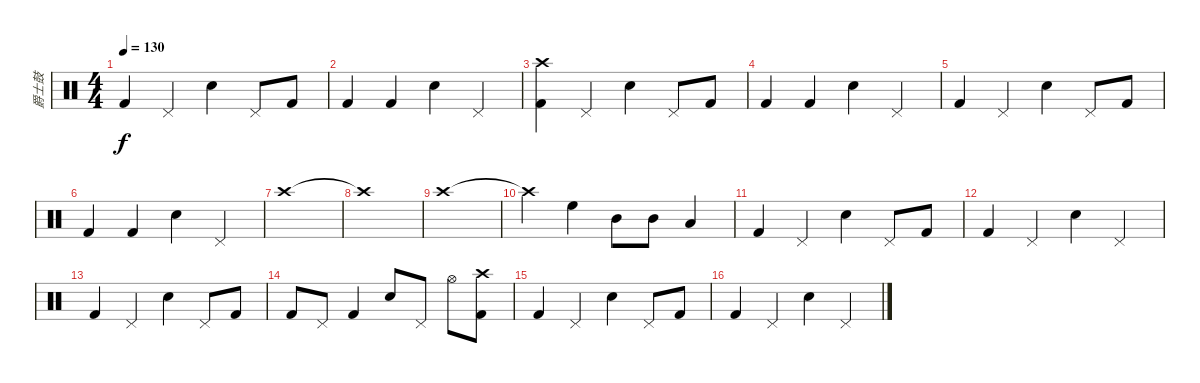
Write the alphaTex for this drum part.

\track ("爵士鼓" "爵士鼓") {instrument percussion}
\staff {score}
\articulation defaults
\ts (4 4)
\tempo 130
\clef neutral
\ks c "Kick (hit) 2".4{dy f} "Pedal Hi-Hat (hit)".4 "Snare (hit) 2".4 "Pedal Hi-Hat (hit)".8 "Kick (hit) 2".8
|
"Kick (hit) 2".4 "Kick (hit) 2".4 "Snare (hit) 2".4 "Pedal Hi-Hat (hit)".4 |
("Crash high (hit)" "Kick (hit) 2").4 "Pedal Hi-Hat (hit)".4 "Snare (hit) 2".4 "Pedal Hi-Hat (hit)".8 "Kick (hit) 2".8 |
"Kick (hit) 2".4 "Kick (hit) 2".4 "Snare (hit) 2".4 "Pedal Hi-Hat (hit)".4 |
"Kick (hit) 2".4 "Pedal Hi-Hat (hit)".4 "Snare (hit) 2".4 "Pedal Hi-Hat (hit)".8 "Kick (hit) 2".8 |
"Kick (hit) 2".4 "Kick (hit) 2".4 "Snare (hit) 2".4 "Pedal Hi-Hat (hit)".4 |
"Crash high (hit)".1 |
"Crash high (hit)"{t}.1 |
"Crash high (hit)".1 |
"Crash high (hit)"{t}.4 "High Floor Tom (hit)".4 "Mid Tom (hit)".8 "Mid Tom (hit)".8 "Low Tom (hit)".4 |
"Kick (hit) 2".4 "Pedal Hi-Hat (hit)".4 "Snare (hit) 2".4 "Pedal Hi-Hat (hit)".8 "Kick (hit) 2".8 |
"Kick (hit) 2".4 "Pedal Hi-Hat (hit)".4 "Snare (hit) 2".4 "Pedal Hi-Hat (hit)".4 |
"Kick (hit) 2".4 "Pedal Hi-Hat (hit)".4 "Snare (hit) 2".4 "Pedal Hi-Hat (hit)".8 "Kick (hit) 2".8 |
"Kick (hit) 2".8 "Pedal Hi-Hat (hit)".8 "Kick (hit) 2".4 "Snare (hit) 2".8 "Pedal Hi-Hat (hit)".8 "Hi-Hat (open)".8 ("Kick (hit) 2" "Crash high (hit)").8 |
"Kick (hit) 2".4 "Pedal Hi-Hat (hit)".4 "Snare (hit) 2".4 "Pedal Hi-Hat (hit)".8 "Kick (hit) 2".8 |
"Kick (hit) 2".4 "Pedal Hi-Hat (hit)".4 "Snare (hit) 2".4 "Pedal Hi-Hat (hit)".4
